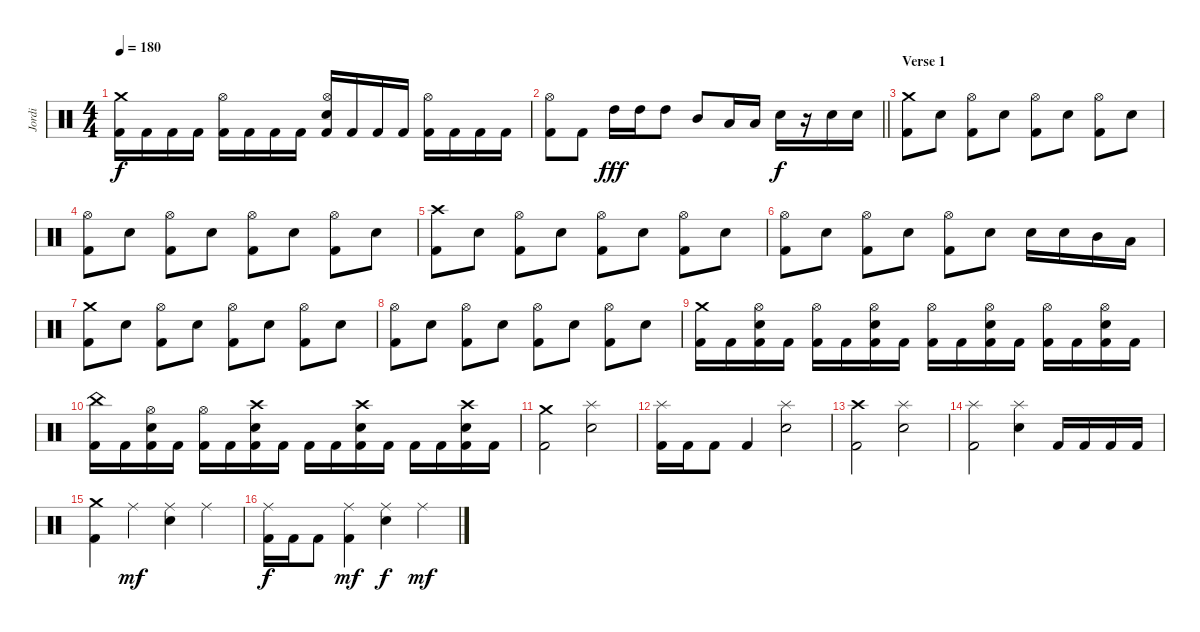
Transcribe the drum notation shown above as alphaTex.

\track ("Jordi" "Jordi") {instrument percussion}
\staff {score}
\articulation defaults
\ts (4 4)
\tempo 180
\clef neutral
\ks c
("Crash medium (hit)" "Kick (hit) 2").16{dy f} "Kick (hit) 2".16 "Kick (hit) 2".16 "Kick (hit) 2".16 ("Hi-Hat (open)" "Kick (hit) 2").16 "Kick (hit) 2".16 "Kick (hit) 2".16 "Kick (hit) 2".16 ("Hi-Hat (open)" "Snare (hit) 2" "Kick (hit) 2").16 "Kick (hit) 2".16 "Kick (hit) 2".16 "Kick (hit) 2".16 ("Hi-Hat (open)" "Kick (hit) 2").16 "Kick (hit) 2".16 "Kick (hit) 2".16 "Kick (hit) 2".16 |
\barLineRight lightlight
("Hi-Hat (open)" "Kick (hit) 2").8 "Kick (hit) 2".8 "High Tom (hit)".16{dy fff} "High Tom (hit)".16 "High Tom (hit)".8 "Mid Tom (hit)".8 "Low Tom (hit)".16 "Low Tom (hit)".16 "Snare (hit) 2".16{dy f} r.16 "Snare (hit) 2".16 "Snare (hit) 2".16 |
\section ("" "Verse 1")
("Crash medium (hit)" "Kick (hit) 2").8 "Snare (hit) 2".8 ("Hi-Hat (open)" "Kick (hit) 2").8 "Snare (hit) 2".8 ("Hi-Hat (open)" "Kick (hit) 2").8 "Snare (hit) 2".8 ("Hi-Hat (open)" "Kick (hit) 2").8 "Snare (hit) 2".8 |
("Hi-Hat (open)" "Kick (hit) 2").8 "Snare (hit) 2".8 ("Hi-Hat (open)" "Kick (hit) 2").8 "Snare (hit) 2".8 ("Hi-Hat (open)" "Kick (hit) 2").8 "Snare (hit) 2".8 ("Hi-Hat (open)" "Kick (hit) 2").8 "Snare (hit) 2".8 |
("Crash high (hit)" "Kick (hit) 2").8 "Snare (hit) 2".8 ("Hi-Hat (open)" "Kick (hit) 2").8 "Snare (hit) 2".8 ("Hi-Hat (open)" "Kick (hit) 2").8 "Snare (hit) 2".8 ("Hi-Hat (open)" "Kick (hit) 2").8 "Snare (hit) 2".8 |
("Hi-Hat (open)" "Kick (hit) 2").8 "Snare (hit) 2".8 ("Hi-Hat (open)" "Kick (hit) 2").8 "Snare (hit) 2".8 ("Hi-Hat (open)" "Kick (hit) 2").8 "Snare (hit) 2".8 "Snare (hit) 2".16 "Snare (hit) 2".16 "Mid Tom (hit)".16 "Low Tom (hit)".16 |
("Crash medium (hit)" "Kick (hit) 2").8 "Snare (hit) 2".8 ("Hi-Hat (open)" "Kick (hit) 2").8 "Snare (hit) 2".8 ("Hi-Hat (open)" "Kick (hit) 2").8 "Snare (hit) 2".8 ("Hi-Hat (open)" "Kick (hit) 2").8 "Snare (hit) 2".8 |
("Hi-Hat (open)" "Kick (hit) 2").8 "Snare (hit) 2".8 ("Hi-Hat (open)" "Kick (hit) 2").8 "Snare (hit) 2".8 ("Hi-Hat (open)" "Kick (hit) 2").8 "Snare (hit) 2".8 ("Hi-Hat (open)" "Kick (hit) 2").8 "Snare (hit) 2".8 |
("Crash medium (hit)" "Kick (hit) 2").16 "Kick (hit) 2".16 ("Hi-Hat (open)" "Snare (hit) 2" "Kick (hit) 2").16 "Kick (hit) 2".16 ("Hi-Hat (open)" "Kick (hit) 2").16 "Kick (hit) 2".16 ("Hi-Hat (open)" "Snare (hit) 2" "Kick (hit) 2").16 "Kick (hit) 2".16 ("Hi-Hat (open)" "Kick (hit) 2").16 "Kick (hit) 2".16 ("Hi-Hat (open)" "Snare (hit) 2" "Kick (hit) 2").16 "Kick (hit) 2".16 ("Hi-Hat (open)" "Kick (hit) 2").16 "Kick (hit) 2".16 ("Hi-Hat (open)" "Snare (hit) 2" "Kick (hit) 2").16 "Kick (hit) 2".16 |
("China (hit)" "Kick (hit) 2").16 "Kick (hit) 2".16 ("Hi-Hat (open)" "Snare (hit) 2" "Kick (hit) 2").16 "Kick (hit) 2".16 ("Hi-Hat (open)" "Kick (hit) 2").16 "Kick (hit) 2".16 ("Crash high (hit)" "Snare (hit) 2" "Kick (hit) 2").16 "Kick (hit) 2".16 "Kick (hit) 2".16 "Kick (hit) 2".16 ("Crash high (hit)" "Snare (hit) 2" "Kick (hit) 2").16 "Kick (hit) 2".16 "Kick (hit) 2".16 "Kick (hit) 2".16 ("Crash high (hit)" "Snare (hit) 2" "Kick (hit) 2").16 "Kick (hit) 2".16 |
("Crash medium (hit)" "Kick (hit) 2").2 ("Splash (hit)" "Snare (hit) 2").2 |
("Splash (hit)" "Kick (hit) 2").16 "Kick (hit) 2".16 "Kick (hit) 2".8 "Kick (hit) 2".4 ("Splash (hit)" "Snare (hit) 2").2 |
("Crash high (hit)" "Kick (hit) 2").2 ("Splash (hit)" "Snare (hit) 2").2 |
("Splash (hit)" "Kick (hit) 2").2 ("Splash (hit)" "Snare (hit) 2").4 "Kick (hit) 2".16 "Kick (hit) 2".16 "Kick (hit) 2".16 "Kick (hit) 2".16 |
("Crash medium (hit)" "Kick (hit) 2").4 "Ride (middle)".4{dy mf} ("Ride (middle)" "Snare (hit) 2").4 "Ride (middle)".4 |
("Ride (middle)" "Kick (hit) 2").16{dy f} "Kick (hit) 2".16 "Kick (hit) 2".8 ("Ride (middle)" "Kick (hit) 2").4{dy mf} ("Ride (middle)" "Snare (hit) 2").4{dy f} "Ride (middle)".4{dy mf}
